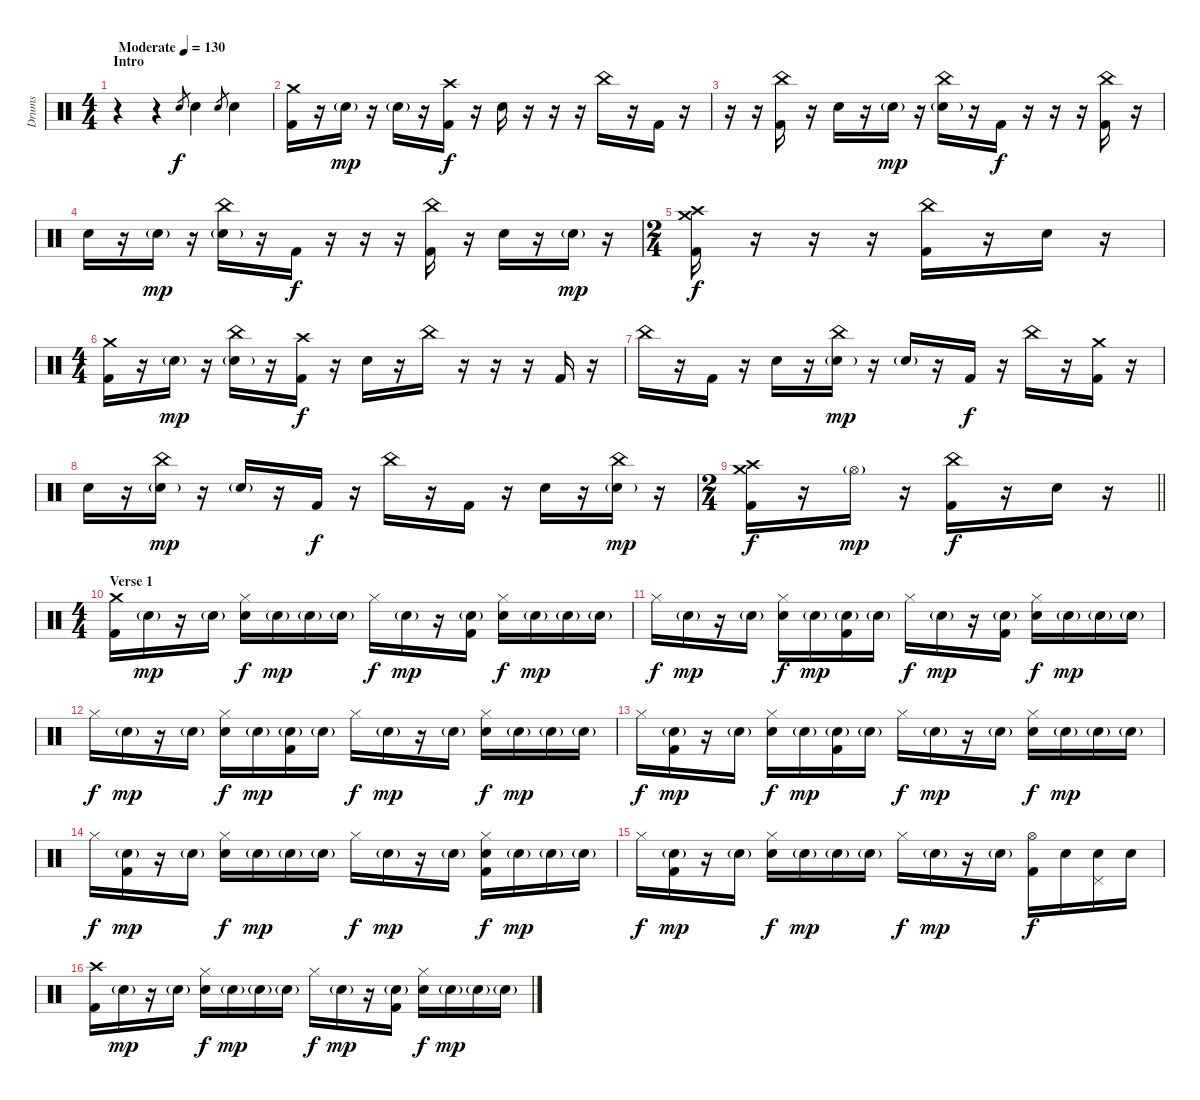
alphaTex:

\track ("Drums" "Drums") {instrument percussion}
\staff {score}
\articulation defaults
\ts (4 4)
\section ("" "Intro")
\tempo (130 "Moderate")
\clef neutral
\ks c
r.4{dy f} r.4 "Electric Snare (hit)".8{gr} "Electric Snare (hit)".4 "Electric Snare (hit)".8{gr} "Electric Snare (hit)".4 |
("Crash medium (hit)" "Kick (hit) 2").16 r.16 "Electric Snare (hit)"{g}.16{dy mp} r.16 "Electric Snare (hit)"{g}.16 r.16 ("Crash high (hit)" "Kick (hit) 2").16{dy f} r.16 "Electric Snare (hit)".16 r.16 r.16 r.16 "China (hit)".16 r.16 "Kick (hit) 2".16 r.16 |
r.16 r.16 ("China (hit)" "Kick (hit) 2").16 r.16 "Electric Snare (hit)".16 r.16 "Electric Snare (hit)"{g}.16{dy mp} r.16 ("China (hit)" "Electric Snare (hit)"{g}).16 r.16 "Kick (hit) 2".16{dy f} r.16 r.16 r.16 ("China (hit)" "Kick (hit) 2").16 r.16 |
"Electric Snare (hit)".16 r.16 "Electric Snare (hit)"{g}.16{dy mp} r.16 ("China (hit)" "Electric Snare (hit)"{g}).16 r.16 "Kick (hit) 2".16{dy f} r.16 r.16 r.16 ("China (hit)" "Kick (hit) 2").16 r.16 "Electric Snare (hit)".16 r.16 "Electric Snare (hit)"{g}.16{dy mp} r.16 |
\ts (2 4)
("Crash high (hit)" "Crash medium (hit)" "Kick (hit) 2").16{dy f} r.16 r.16 r.16 ("China (hit)" "Kick (hit) 2").16 r.16 "Electric Snare (hit)".16 r.16 |
\ts (4 4)
("Crash medium (hit)" "Kick (hit) 2").16 r.16 "Electric Snare (hit)"{g}.16{dy mp} r.16 ("China (hit)" "Electric Snare (hit)"{g}).16 r.16 ("Crash high (hit)" "Kick (hit) 2").16{dy f} r.16 "Electric Snare (hit)".16 r.16 "China (hit)".16 r.16 r.16 r.16 "Kick (hit) 2".16 r.16 |
"China (hit)".16 r.16 "Kick (hit) 2".16 r.16 "Electric Snare (hit)".16 r.16 ("China (hit)" "Electric Snare (hit)"{g}).16{dy mp} r.16 "Electric Snare (hit)"{g}.16 r.16 "Kick (hit) 2".16{dy f} r.16 "China (hit)".16 r.16 ("Crash medium (hit)" "Kick (hit) 2").16 r.16 |
"Electric Snare (hit)".16 r.16 ("China (hit)" "Electric Snare (hit)"{g}).16{dy mp} r.16 "Electric Snare (hit)"{g}.16 r.16 "Kick (hit) 2".16{dy f} r.16 "China (hit)".16 r.16 "Kick (hit) 2".16 r.16 "Electric Snare (hit)".16 r.16 ("China (hit)" "Electric Snare (hit)"{g}).16{dy mp} r.16 |
\ts (2 4)
\barLineRight lightlight
("Crash high (hit)" "Crash medium (hit)" "Kick (hit) 2").16{dy f} r.16 "Hi-Hat (open)"{g}.16{dy mp} r.16 ("China (hit)" "Kick (hit) 2").16{dy f} r.16 "Electric Snare (hit)".16 r.16 |
\ts (4 4)
\section ("" "Verse 1")
("Crash medium (hit)" "Kick (hit) 2").16 "Electric Snare (hit)"{g}.16{dy mp} r.16 "Electric Snare (hit)"{g}.16 ("Hi-Hat (closed)" "Electric Snare (hit)").16{dy f} "Electric Snare (hit)"{g}.16{dy mp} "Electric Snare (hit)"{g}.16 "Electric Snare (hit)"{g}.16 "Hi-Hat (closed)".16{dy f} "Electric Snare (hit)"{g}.16{dy mp} r.16 ("Electric Snare (hit)"{g} "Kick (hit) 2").16 ("Hi-Hat (closed)" "Electric Snare (hit)").16{dy f} "Electric Snare (hit)"{g}.16{dy mp} "Electric Snare (hit)"{g}.16 "Electric Snare (hit)"{g}.16 |
"Hi-Hat (closed)".16{dy f} "Electric Snare (hit)"{g}.16{dy mp} r.16 "Electric Snare (hit)"{g}.16 ("Hi-Hat (closed)" "Electric Snare (hit)").16{dy f} "Electric Snare (hit)"{g}.16{dy mp} ("Electric Snare (hit)"{g} "Kick (hit) 2").16 "Electric Snare (hit)"{g}.16 "Hi-Hat (closed)".16{dy f} "Electric Snare (hit)"{g}.16{dy mp} r.16 ("Electric Snare (hit)"{g} "Kick (hit) 2").16 ("Hi-Hat (closed)" "Electric Snare (hit)").16{dy f} "Electric Snare (hit)"{g}.16{dy mp} "Electric Snare (hit)"{g}.16 "Electric Snare (hit)"{g}.16 |
"Hi-Hat (closed)".16{dy f} "Electric Snare (hit)"{g}.16{dy mp} r.16 "Electric Snare (hit)"{g}.16 ("Hi-Hat (closed)" "Electric Snare (hit)").16{dy f} "Electric Snare (hit)"{g}.16{dy mp} ("Electric Snare (hit)"{g} "Kick (hit) 2").16 "Electric Snare (hit)"{g}.16 "Hi-Hat (closed)".16{dy f} "Electric Snare (hit)"{g}.16{dy mp} r.16 "Electric Snare (hit)"{g}.16 ("Hi-Hat (closed)" "Electric Snare (hit)").16{dy f} "Electric Snare (hit)"{g}.16{dy mp} "Electric Snare (hit)"{g}.16 "Electric Snare (hit)"{g}.16 |
"Hi-Hat (closed)".16{dy f} ("Electric Snare (hit)"{g} "Kick (hit) 2").16{dy mp} r.16 "Electric Snare (hit)"{g}.16 ("Hi-Hat (closed)" "Electric Snare (hit)").16{dy f} "Electric Snare (hit)"{g}.16{dy mp} ("Electric Snare (hit)"{g} "Kick (hit) 2").16 "Electric Snare (hit)"{g}.16 "Hi-Hat (closed)".16{dy f} "Electric Snare (hit)"{g}.16{dy mp} r.16 "Electric Snare (hit)"{g}.16 ("Hi-Hat (closed)" "Electric Snare (hit)").16{dy f} "Electric Snare (hit)"{g}.16{dy mp} "Electric Snare (hit)"{g}.16 "Electric Snare (hit)"{g}.16 |
"Hi-Hat (closed)".16{dy f} ("Electric Snare (hit)"{g} "Kick (hit) 2").16{dy mp} r.16 "Electric Snare (hit)"{g}.16 ("Hi-Hat (closed)" "Electric Snare (hit)").16{dy f} "Electric Snare (hit)"{g}.16{dy mp} "Electric Snare (hit)"{g}.16 "Electric Snare (hit)"{g}.16 "Hi-Hat (closed)".16{dy f} "Electric Snare (hit)"{g}.16{dy mp} r.16 "Electric Snare (hit)"{g}.16 ("Hi-Hat (closed)" "Electric Snare (hit)" "Kick (hit) 2").16{dy f} "Electric Snare (hit)"{g}.16{dy mp} "Electric Snare (hit)"{g}.16 "Electric Snare (hit)"{g}.16 |
"Hi-Hat (closed)".16{dy f} ("Electric Snare (hit)"{g} "Kick (hit) 2").16{dy mp} r.16 "Electric Snare (hit)"{g}.16 ("Hi-Hat (closed)" "Electric Snare (hit)").16{dy f} "Electric Snare (hit)"{g}.16{dy mp} "Electric Snare (hit)"{g}.16 "Electric Snare (hit)"{g}.16 "Hi-Hat (closed)".16{dy f} "Electric Snare (hit)"{g}.16{dy mp} r.16 "Electric Snare (hit)"{g}.16 ("Hi-Hat (open)" "Kick (hit) 2").16{dy f} "Electric Snare (hit)".16 ("Pedal Hi-Hat (hit)" "Electric Snare (hit)").16 "Electric Snare (hit)".16 |
("Crash high (hit)" "Kick (hit) 2").16 "Electric Snare (hit)"{g}.16{dy mp} r.16 "Electric Snare (hit)"{g}.16 ("Hi-Hat (closed)" "Electric Snare (hit)").16{dy f} "Electric Snare (hit)"{g}.16{dy mp} "Electric Snare (hit)"{g}.16 "Electric Snare (hit)"{g}.16 "Hi-Hat (closed)".16{dy f} "Electric Snare (hit)"{g}.16{dy mp} r.16 ("Electric Snare (hit)"{g} "Kick (hit) 2").16 ("Hi-Hat (closed)" "Electric Snare (hit)").16{dy f} "Electric Snare (hit)"{g}.16{dy mp} "Electric Snare (hit)"{g}.16 "Electric Snare (hit)"{g}.16
